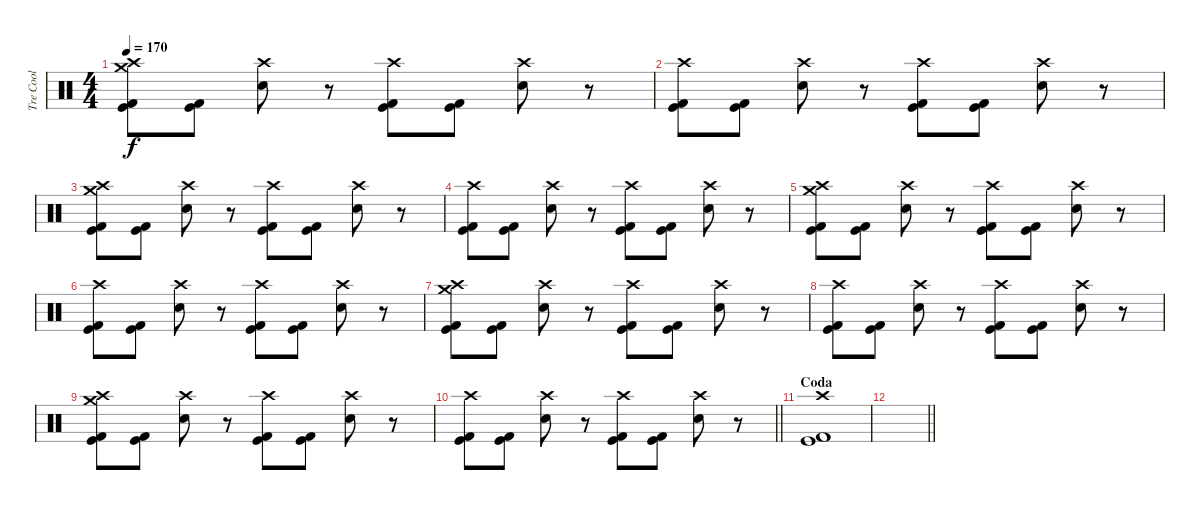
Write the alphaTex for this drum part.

\track ("Tre Cool" "Tre Cool") {instrument percussion}
\staff {score}
\articulation defaults
\ts (4 4)
\tempo 170
\clef neutral
\ks c
("Crash high (hit)" "Crash medium (hit)" "Kick (hit)" "Kick (hit) 2").8{dy f} ("Kick (hit)" "Kick (hit) 2").8 ("Crash high (hit)" "Electric Snare (hit)").8 r.8 ("Crash high (hit)" "Kick (hit)" "Kick (hit) 2").8 ("Kick (hit)" "Kick (hit) 2").8 ("Crash high (hit)" "Electric Snare (hit)").8 r.8 |
("Crash high (hit)" "Kick (hit)" "Kick (hit) 2").8 ("Kick (hit)" "Kick (hit) 2").8 ("Crash high (hit)" "Electric Snare (hit)").8 r.8 ("Crash high (hit)" "Kick (hit)" "Kick (hit) 2").8 ("Kick (hit)" "Kick (hit) 2").8 ("Crash high (hit)" "Electric Snare (hit)").8 r.8 |
("Crash high (hit)" "Crash medium (hit)" "Kick (hit)" "Kick (hit) 2").8 ("Kick (hit)" "Kick (hit) 2").8 ("Crash high (hit)" "Electric Snare (hit)").8 r.8 ("Crash high (hit)" "Kick (hit)" "Kick (hit) 2").8 ("Kick (hit)" "Kick (hit) 2").8 ("Crash high (hit)" "Electric Snare (hit)").8 r.8 |
("Crash high (hit)" "Kick (hit)" "Kick (hit) 2").8 ("Kick (hit)" "Kick (hit) 2").8 ("Crash high (hit)" "Electric Snare (hit)").8 r.8 ("Crash high (hit)" "Kick (hit)" "Kick (hit) 2").8 ("Kick (hit)" "Kick (hit) 2").8 ("Crash high (hit)" "Electric Snare (hit)").8 r.8 |
("Crash high (hit)" "Crash medium (hit)" "Kick (hit)" "Kick (hit) 2").8 ("Kick (hit)" "Kick (hit) 2").8 ("Crash high (hit)" "Electric Snare (hit)").8 r.8 ("Crash high (hit)" "Kick (hit)" "Kick (hit) 2").8 ("Kick (hit)" "Kick (hit) 2").8 ("Crash high (hit)" "Electric Snare (hit)").8 r.8 |
("Crash high (hit)" "Kick (hit)" "Kick (hit) 2").8 ("Kick (hit)" "Kick (hit) 2").8 ("Crash high (hit)" "Electric Snare (hit)").8 r.8 ("Crash high (hit)" "Kick (hit)" "Kick (hit) 2").8 ("Kick (hit)" "Kick (hit) 2").8 ("Crash high (hit)" "Electric Snare (hit)").8 r.8 |
("Crash high (hit)" "Crash medium (hit)" "Kick (hit)" "Kick (hit) 2").8 ("Kick (hit)" "Kick (hit) 2").8 ("Crash high (hit)" "Electric Snare (hit)").8 r.8 ("Crash high (hit)" "Kick (hit)" "Kick (hit) 2").8 ("Kick (hit)" "Kick (hit) 2").8 ("Crash high (hit)" "Electric Snare (hit)").8 r.8 |
("Crash high (hit)" "Kick (hit)" "Kick (hit) 2").8 ("Kick (hit)" "Kick (hit) 2").8 ("Crash high (hit)" "Electric Snare (hit)").8 r.8 ("Crash high (hit)" "Kick (hit)" "Kick (hit) 2").8 ("Kick (hit)" "Kick (hit) 2").8 ("Crash high (hit)" "Electric Snare (hit)").8 r.8 |
("Crash high (hit)" "Crash medium (hit)" "Kick (hit)" "Kick (hit) 2").8 ("Kick (hit)" "Kick (hit) 2").8 ("Crash high (hit)" "Electric Snare (hit)").8 r.8 ("Crash high (hit)" "Kick (hit)" "Kick (hit) 2").8 ("Kick (hit)" "Kick (hit) 2").8 ("Crash high (hit)" "Electric Snare (hit)").8 r.8 |
\barLineRight lightlight
("Crash high (hit)" "Kick (hit)" "Kick (hit) 2").8 ("Kick (hit)" "Kick (hit) 2").8 ("Crash high (hit)" "Electric Snare (hit)").8 r.8 ("Crash high (hit)" "Kick (hit)" "Kick (hit) 2").8 ("Kick (hit)" "Kick (hit) 2").8 ("Crash high (hit)" "Electric Snare (hit)").8 r.8 |
\section ("" "Coda")
("Crash high (hit)" "Kick (hit)" "Kick (hit) 2").1 |
\barLineRight lightlight
